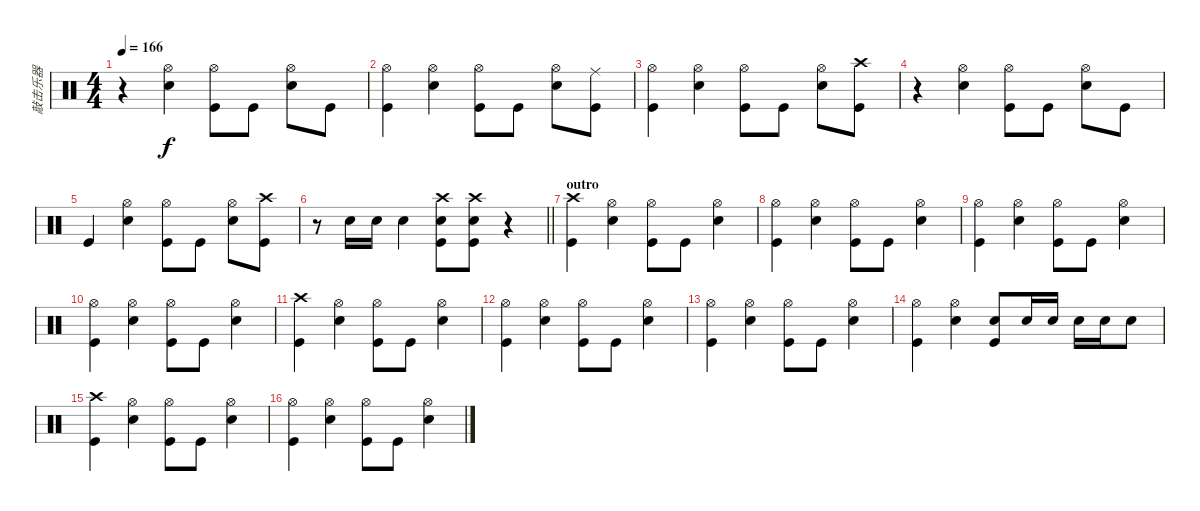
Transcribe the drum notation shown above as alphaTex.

\track ("敲击乐器" "敲击乐器") {instrument percussion}
\staff {score}
\articulation defaults
\ts (4 4)
\tempo 166
\clef neutral
\ks c
r.4{dy f} ("Hi-Hat (open)" "Snare (hit) 2").4 ("Kick (hit)" "Hi-Hat (open)").8 "Kick (hit)".8 ("Snare (hit) 2" "Hi-Hat (open)").8 "Kick (hit)".8 |
("Kick (hit)" "Hi-Hat (open)").4 ("Hi-Hat (open)" "Snare (hit) 2").4 ("Kick (hit)" "Hi-Hat (open)").8 "Kick (hit)".8 ("Snare (hit) 2" "Hi-Hat (open)").8 ("Kick (hit)" "Ride (middle)").8 |
("Kick (hit)" "Hi-Hat (open)").4 ("Hi-Hat (open)" "Snare (hit) 2").4 ("Kick (hit)" "Hi-Hat (open)").8 "Kick (hit)".8 ("Snare (hit) 2" "Hi-Hat (open)").8 ("Kick (hit)" "Crash high (hit)").8 |
r.4 ("Hi-Hat (open)" "Snare (hit) 2").4 ("Hi-Hat (open)" "Kick (hit)").8 "Kick (hit)".8 ("Snare (hit) 2" "Hi-Hat (open)").8 "Kick (hit)".8 |
"Kick (hit)".4 ("Hi-Hat (open)" "Snare (hit) 2").4 ("Hi-Hat (open)" "Kick (hit)").8 "Kick (hit)".8 ("Snare (hit) 2" "Hi-Hat (open)").8 ("Kick (hit)" "Crash high (hit)").8 |
\barLineRight lightlight
r.8 "Snare (hit) 2".16 "Snare (hit) 2".16 "Snare (hit) 2".4 ("Snare (hit) 2" "Crash high (hit)" "Kick (hit)").8 ("Snare (hit) 2" "Crash high (hit)" "Kick (hit)").8 r.4 |
\section ("" "outro")
("Kick (hit)" "Crash high (hit)").4 ("Snare (hit) 2" "Hi-Hat (open)").4 ("Kick (hit)" "Hi-Hat (open)").8 "Kick (hit)".8 ("Snare (hit) 2" "Hi-Hat (open)").4 |
("Kick (hit)" "Hi-Hat (open)").4 ("Snare (hit) 2" "Hi-Hat (open)").4 ("Kick (hit)" "Hi-Hat (open)").8 "Kick (hit)".8 ("Snare (hit) 2" "Hi-Hat (open)").4 |
("Kick (hit)" "Hi-Hat (open)").4 ("Snare (hit) 2" "Hi-Hat (open)").4 ("Kick (hit)" "Hi-Hat (open)").8 "Kick (hit)".8 ("Snare (hit) 2" "Hi-Hat (open)").4 |
("Kick (hit)" "Hi-Hat (open)").4 ("Snare (hit) 2" "Hi-Hat (open)").4 ("Kick (hit)" "Hi-Hat (open)").8 "Kick (hit)".8 ("Snare (hit) 2" "Hi-Hat (open)").4 |
("Kick (hit)" "Crash high (hit)").4 ("Snare (hit) 2" "Hi-Hat (open)").4 ("Kick (hit)" "Hi-Hat (open)").8 "Kick (hit)".8 ("Snare (hit) 2" "Hi-Hat (open)").4 |
("Kick (hit)" "Hi-Hat (open)").4 ("Snare (hit) 2" "Hi-Hat (open)").4 ("Kick (hit)" "Hi-Hat (open)").8 "Kick (hit)".8 ("Snare (hit) 2" "Hi-Hat (open)").4 |
("Kick (hit)" "Hi-Hat (open)").4 ("Snare (hit) 2" "Hi-Hat (open)").4 ("Kick (hit)" "Hi-Hat (open)").8 "Kick (hit)".8 ("Snare (hit) 2" "Hi-Hat (open)").4 |
("Kick (hit)" "Hi-Hat (open)").4 ("Snare (hit) 2" "Hi-Hat (open)").4 ("Kick (hit)" "Snare (hit) 2").8 "Snare (hit) 2".16 "Snare (hit) 2".16 "Snare (hit) 2".16 "Snare (hit) 2".16 "Snare (hit) 2".8 |
("Kick (hit)" "Crash high (hit)").4 ("Snare (hit) 2" "Hi-Hat (open)").4 ("Kick (hit)" "Hi-Hat (open)").8 "Kick (hit)".8 ("Snare (hit) 2" "Hi-Hat (open)").4 |
("Kick (hit)" "Hi-Hat (open)").4 ("Snare (hit) 2" "Hi-Hat (open)").4 ("Kick (hit)" "Hi-Hat (open)").8 "Kick (hit)".8 ("Snare (hit) 2" "Hi-Hat (open)").4
